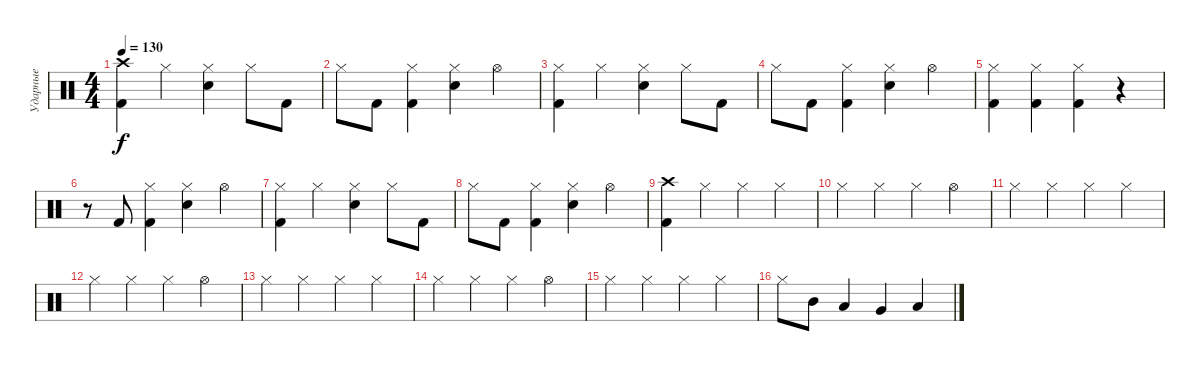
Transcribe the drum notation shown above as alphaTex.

\track ("Ударные" "Ударные") {instrument percussion}
\staff {score}
\articulation defaults
\ts (4 4)
\tempo 130
\clef neutral
\ks c
("Crash high (hit)" "Kick (hit) 2").4{dy f} "Hi-Hat (closed)".4 ("Hi-Hat (closed)" "Snare (hit) 2").4 "Hi-Hat (closed)".8 "Kick (hit) 2".8 |
"Hi-Hat (closed)".8 "Kick (hit) 2".8 ("Hi-Hat (closed)" "Kick (hit) 2").4 ("Hi-Hat (closed)" "Snare (hit) 2").4 "Hi-Hat (open)".4 |
("Hi-Hat (closed)" "Kick (hit) 2").4 "Hi-Hat (closed)".4 ("Hi-Hat (closed)" "Snare (hit) 2").4 "Hi-Hat (closed)".8 "Kick (hit) 2".8 |
"Hi-Hat (closed)".8 "Kick (hit) 2".8 ("Hi-Hat (closed)" "Kick (hit) 2").4 ("Hi-Hat (closed)" "Snare (hit) 2").4 "Hi-Hat (open)".4 |
("Hi-Hat (closed)" "Kick (hit) 2").4 ("Hi-Hat (closed)" "Kick (hit) 2").4 ("Hi-Hat (closed)" "Kick (hit) 2").4 r.4 |
r.8 "Kick (hit) 2".8 ("Hi-Hat (closed)" "Kick (hit) 2").4 ("Hi-Hat (closed)" "Snare (hit) 2").4 "Hi-Hat (open)".4 |
("Hi-Hat (closed)" "Kick (hit) 2").4 "Hi-Hat (closed)".4 ("Hi-Hat (closed)" "Snare (hit) 2").4 "Hi-Hat (closed)".8 "Kick (hit) 2".8 |
"Hi-Hat (closed)".8 "Kick (hit) 2".8 ("Hi-Hat (closed)" "Kick (hit) 2").4 ("Hi-Hat (closed)" "Snare (hit) 2").4 "Hi-Hat (open)".4 |
("Crash high (hit)" "Kick (hit) 2").4 "Hi-Hat (closed)".4 "Hi-Hat (closed)".4 "Hi-Hat (closed)".4 |
"Hi-Hat (closed)".4 "Hi-Hat (closed)".4 "Hi-Hat (closed)".4 "Hi-Hat (open)".4 |
"Hi-Hat (closed)".4 "Hi-Hat (closed)".4 "Hi-Hat (closed)".4 "Hi-Hat (closed)".4 |
"Hi-Hat (closed)".4 "Hi-Hat (closed)".4 "Hi-Hat (closed)".4 "Hi-Hat (open)".4 |
"Hi-Hat (closed)".4 "Hi-Hat (closed)".4 "Hi-Hat (closed)".4 "Hi-Hat (closed)".4 |
"Hi-Hat (closed)".4 "Hi-Hat (closed)".4 "Hi-Hat (closed)".4 "Hi-Hat (open)".4 |
"Hi-Hat (closed)".4 "Hi-Hat (closed)".4 "Hi-Hat (closed)".4 "Hi-Hat (closed)".4 |
"Hi-Hat (closed)".8 "Mid Tom (hit)".8 "Low Tom (hit)".4 "Very Low Tom (hit)".4 "Low Floor Tom (hit)".4
